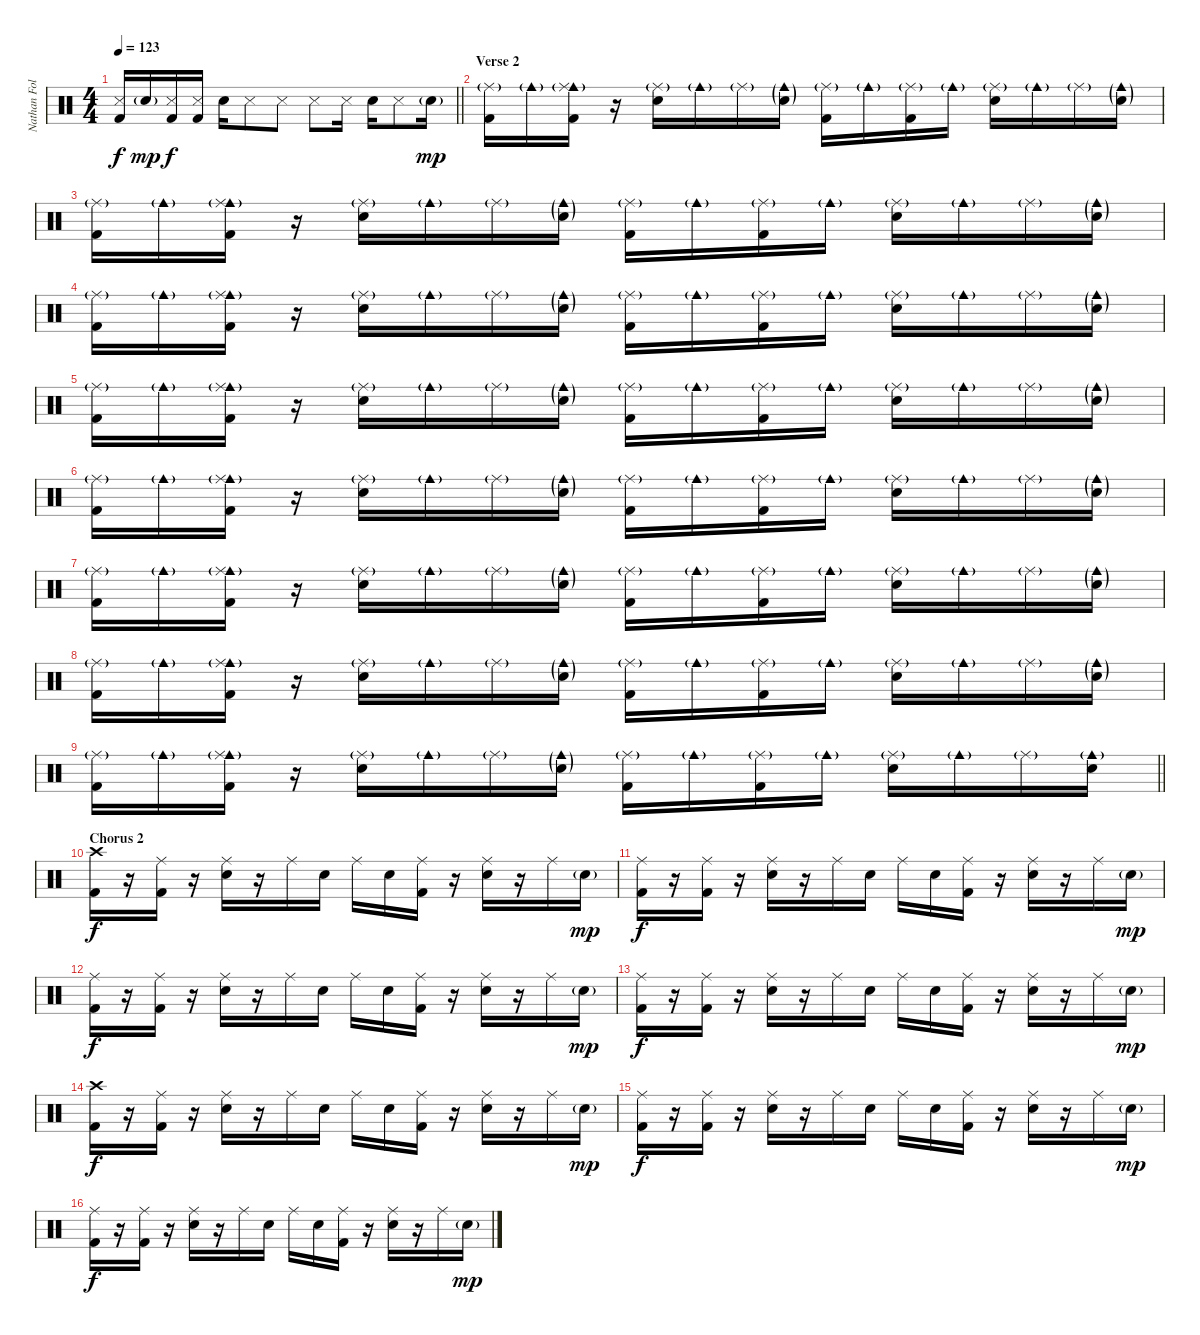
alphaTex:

\track ("Nathan Followill" "Nathan Fol") {instrument percussion}
\staff {score}
\articulation defaults
\ts (4 4)
\tempo 123
\clef neutral
\barLineRight lightlight
\ks c
("Snare (side stick) 3" "Kick (hit) 2").16{dy f} "Electric Snare (hit)"{g}.16{dy mp} ("Snare (side stick) 3" "Kick (hit) 2").16{dy f} ("Snare (side stick) 3" "Kick (hit) 2").16 "Electric Snare (hit)".16 "Snare (side stick) 3".8 "Snare (side stick) 3".8 "Snare (side stick) 3".8 "Snare (side stick) 3".16 "Electric Snare (hit)".16 "Snare (side stick) 3".8 "Electric Snare (hit)"{g}.16{dy mp} |
\section ("" "Verse 2")
("Ride (middle)"{g} "Kick (hit) 2").16 "Cowbell medium (hit)"{g}.16 ("Cowbell medium (hit)"{g} "Ride (middle)"{g} "Kick (hit) 2").16 r.16 ("Ride (middle)"{g} "Electric Snare (hit)").16 "Cowbell medium (hit)"{g}.16 "Ride (middle)"{g}.16 ("Cowbell medium (hit)"{g} "Electric Snare (hit)"{g}).16 ("Ride (middle)"{g} "Kick (hit) 2").16 "Cowbell medium (hit)"{g}.16 ("Ride (middle)"{g} "Kick (hit) 2").16 "Cowbell medium (hit)"{g}.16 ("Ride (middle)"{g} "Electric Snare (hit)").16 "Cowbell medium (hit)"{g}.16 "Ride (middle)"{g}.16 ("Cowbell medium (hit)"{g} "Electric Snare (hit)"{g}).16 |
("Ride (middle)"{g} "Kick (hit) 2").16 "Cowbell medium (hit)"{g}.16 ("Cowbell medium (hit)"{g} "Ride (middle)"{g} "Kick (hit) 2").16 r.16 ("Ride (middle)"{g} "Electric Snare (hit)").16 "Cowbell medium (hit)"{g}.16 "Ride (middle)"{g}.16 ("Cowbell medium (hit)"{g} "Electric Snare (hit)"{g}).16 ("Ride (middle)"{g} "Kick (hit) 2").16 "Cowbell medium (hit)"{g}.16 ("Ride (middle)"{g} "Kick (hit) 2").16 "Cowbell medium (hit)"{g}.16 ("Ride (middle)"{g} "Electric Snare (hit)").16 "Cowbell medium (hit)"{g}.16 "Ride (middle)"{g}.16 ("Cowbell medium (hit)"{g} "Electric Snare (hit)"{g}).16 |
("Ride (middle)"{g} "Kick (hit) 2").16 "Cowbell medium (hit)"{g}.16 ("Cowbell medium (hit)"{g} "Ride (middle)"{g} "Kick (hit) 2").16 r.16 ("Ride (middle)"{g} "Electric Snare (hit)").16 "Cowbell medium (hit)"{g}.16 "Ride (middle)"{g}.16 ("Cowbell medium (hit)"{g} "Electric Snare (hit)"{g}).16 ("Ride (middle)"{g} "Kick (hit) 2").16 "Cowbell medium (hit)"{g}.16 ("Ride (middle)"{g} "Kick (hit) 2").16 "Cowbell medium (hit)"{g}.16 ("Ride (middle)"{g} "Electric Snare (hit)").16 "Cowbell medium (hit)"{g}.16 "Ride (middle)"{g}.16 ("Cowbell medium (hit)"{g} "Electric Snare (hit)"{g}).16 |
("Ride (middle)"{g} "Kick (hit) 2").16 "Cowbell medium (hit)"{g}.16 ("Cowbell medium (hit)"{g} "Ride (middle)"{g} "Kick (hit) 2").16 r.16 ("Ride (middle)"{g} "Electric Snare (hit)").16 "Cowbell medium (hit)"{g}.16 "Ride (middle)"{g}.16 ("Cowbell medium (hit)"{g} "Electric Snare (hit)"{g}).16 ("Ride (middle)"{g} "Kick (hit) 2").16 "Cowbell medium (hit)"{g}.16 ("Ride (middle)"{g} "Kick (hit) 2").16 "Cowbell medium (hit)"{g}.16 ("Ride (middle)"{g} "Electric Snare (hit)").16 "Cowbell medium (hit)"{g}.16 "Ride (middle)"{g}.16 ("Cowbell medium (hit)"{g} "Electric Snare (hit)"{g}).16 |
("Ride (middle)"{g} "Kick (hit) 2").16 "Cowbell medium (hit)"{g}.16 ("Cowbell medium (hit)"{g} "Ride (middle)"{g} "Kick (hit) 2").16 r.16 ("Ride (middle)"{g} "Electric Snare (hit)").16 "Cowbell medium (hit)"{g}.16 "Ride (middle)"{g}.16 ("Cowbell medium (hit)"{g} "Electric Snare (hit)"{g}).16 ("Ride (middle)"{g} "Kick (hit) 2").16 "Cowbell medium (hit)"{g}.16 ("Ride (middle)"{g} "Kick (hit) 2").16 "Cowbell medium (hit)"{g}.16 ("Ride (middle)"{g} "Electric Snare (hit)").16 "Cowbell medium (hit)"{g}.16 "Ride (middle)"{g}.16 ("Cowbell medium (hit)"{g} "Electric Snare (hit)"{g}).16 |
("Ride (middle)"{g} "Kick (hit) 2").16 "Cowbell medium (hit)"{g}.16 ("Cowbell medium (hit)"{g} "Ride (middle)"{g} "Kick (hit) 2").16 r.16 ("Ride (middle)"{g} "Electric Snare (hit)").16 "Cowbell medium (hit)"{g}.16 "Ride (middle)"{g}.16 ("Cowbell medium (hit)"{g} "Electric Snare (hit)"{g}).16 ("Ride (middle)"{g} "Kick (hit) 2").16 "Cowbell medium (hit)"{g}.16 ("Ride (middle)"{g} "Kick (hit) 2").16 "Cowbell medium (hit)"{g}.16 ("Ride (middle)"{g} "Electric Snare (hit)").16 "Cowbell medium (hit)"{g}.16 "Ride (middle)"{g}.16 ("Cowbell medium (hit)"{g} "Electric Snare (hit)"{g}).16 |
("Ride (middle)"{g} "Kick (hit) 2").16 "Cowbell medium (hit)"{g}.16 ("Cowbell medium (hit)"{g} "Ride (middle)"{g} "Kick (hit) 2").16 r.16 ("Ride (middle)"{g} "Electric Snare (hit)").16 "Cowbell medium (hit)"{g}.16 "Ride (middle)"{g}.16 ("Cowbell medium (hit)"{g} "Electric Snare (hit)"{g}).16 ("Ride (middle)"{g} "Kick (hit) 2").16 "Cowbell medium (hit)"{g}.16 ("Ride (middle)"{g} "Kick (hit) 2").16 "Cowbell medium (hit)"{g}.16 ("Ride (middle)"{g} "Electric Snare (hit)").16 "Cowbell medium (hit)"{g}.16 "Ride (middle)"{g}.16 ("Cowbell medium (hit)"{g} "Electric Snare (hit)"{g}).16 |
\barLineRight lightlight
("Ride (middle)"{g} "Kick (hit) 2").16 "Cowbell medium (hit)"{g}.16 ("Cowbell medium (hit)"{g} "Ride (middle)"{g} "Kick (hit) 2").16 r.16 ("Ride (middle)"{g} "Electric Snare (hit)").16 "Cowbell medium (hit)"{g}.16 "Ride (middle)"{g}.16 ("Cowbell medium (hit)"{g} "Electric Snare (hit)"{g}).16 ("Ride (middle)"{g} "Kick (hit) 2").16 "Cowbell medium (hit)"{g}.16 ("Ride (middle)"{g} "Kick (hit) 2").16 "Cowbell medium (hit)"{g}.16 ("Ride (middle)"{g} "Electric Snare (hit)").16 "Cowbell medium (hit)"{g}.16 "Ride (middle)"{g}.16 ("Cowbell medium (hit)"{g} "Electric Snare (hit)").16 |
\section ("" "Chorus 2")
("Crash high (hit)" "Kick (hit) 2").16{dy f} r.16 ("Ride (middle)" "Kick (hit) 2").16 r.16 ("Ride (middle)" "Electric Snare (hit)").16 r.16 "Ride (middle)".16 "Electric Snare (hit)".16 "Ride (middle)".16 "Electric Snare (hit)".16 ("Ride (middle)" "Kick (hit) 2").16 r.16 ("Ride (middle)" "Electric Snare (hit)").16 r.16 "Ride (middle)".16 "Electric Snare (hit)"{g}.16{dy mp} |
("Ride (middle)" "Kick (hit) 2").16{dy f} r.16 ("Ride (middle)" "Kick (hit) 2").16 r.16 ("Ride (middle)" "Electric Snare (hit)").16 r.16 "Ride (middle)".16 "Electric Snare (hit)".16 "Ride (middle)".16 "Electric Snare (hit)".16 ("Ride (middle)" "Kick (hit) 2").16 r.16 ("Ride (middle)" "Electric Snare (hit)").16 r.16 "Ride (middle)".16 "Electric Snare (hit)"{g}.16{dy mp} |
("Ride (middle)" "Kick (hit) 2").16{dy f} r.16 ("Ride (middle)" "Kick (hit) 2").16 r.16 ("Ride (middle)" "Electric Snare (hit)").16 r.16 "Ride (middle)".16 "Electric Snare (hit)".16 "Ride (middle)".16 "Electric Snare (hit)".16 ("Ride (middle)" "Kick (hit) 2").16 r.16 ("Ride (middle)" "Electric Snare (hit)").16 r.16 "Ride (middle)".16 "Electric Snare (hit)"{g}.16{dy mp} |
("Ride (middle)" "Kick (hit) 2").16{dy f} r.16 ("Ride (middle)" "Kick (hit) 2").16 r.16 ("Ride (middle)" "Electric Snare (hit)").16 r.16 "Ride (middle)".16 "Electric Snare (hit)".16 "Ride (middle)".16 "Electric Snare (hit)".16 ("Ride (middle)" "Kick (hit) 2").16 r.16 ("Ride (middle)" "Electric Snare (hit)").16 r.16 "Ride (middle)".16 "Electric Snare (hit)"{g}.16{dy mp} |
("Crash high (hit)" "Kick (hit) 2").16{dy f} r.16 ("Ride (middle)" "Kick (hit) 2").16 r.16 ("Ride (middle)" "Electric Snare (hit)").16 r.16 "Ride (middle)".16 "Electric Snare (hit)".16 "Ride (middle)".16 "Electric Snare (hit)".16 ("Ride (middle)" "Kick (hit) 2").16 r.16 ("Ride (middle)" "Electric Snare (hit)").16 r.16 "Ride (middle)".16 "Electric Snare (hit)"{g}.16{dy mp} |
("Ride (middle)" "Kick (hit) 2").16{dy f} r.16 ("Ride (middle)" "Kick (hit) 2").16 r.16 ("Ride (middle)" "Electric Snare (hit)").16 r.16 "Ride (middle)".16 "Electric Snare (hit)".16 "Ride (middle)".16 "Electric Snare (hit)".16 ("Ride (middle)" "Kick (hit) 2").16 r.16 ("Ride (middle)" "Electric Snare (hit)").16 r.16 "Ride (middle)".16 "Electric Snare (hit)"{g}.16{dy mp} |
("Ride (middle)" "Kick (hit) 2").16{dy f} r.16 ("Ride (middle)" "Kick (hit) 2").16 r.16 ("Ride (middle)" "Electric Snare (hit)").16 r.16 "Ride (middle)".16 "Electric Snare (hit)".16 "Ride (middle)".16 "Electric Snare (hit)".16 ("Ride (middle)" "Kick (hit) 2").16 r.16 ("Ride (middle)" "Electric Snare (hit)").16 r.16 "Ride (middle)".16 "Electric Snare (hit)"{g}.16{dy mp}
